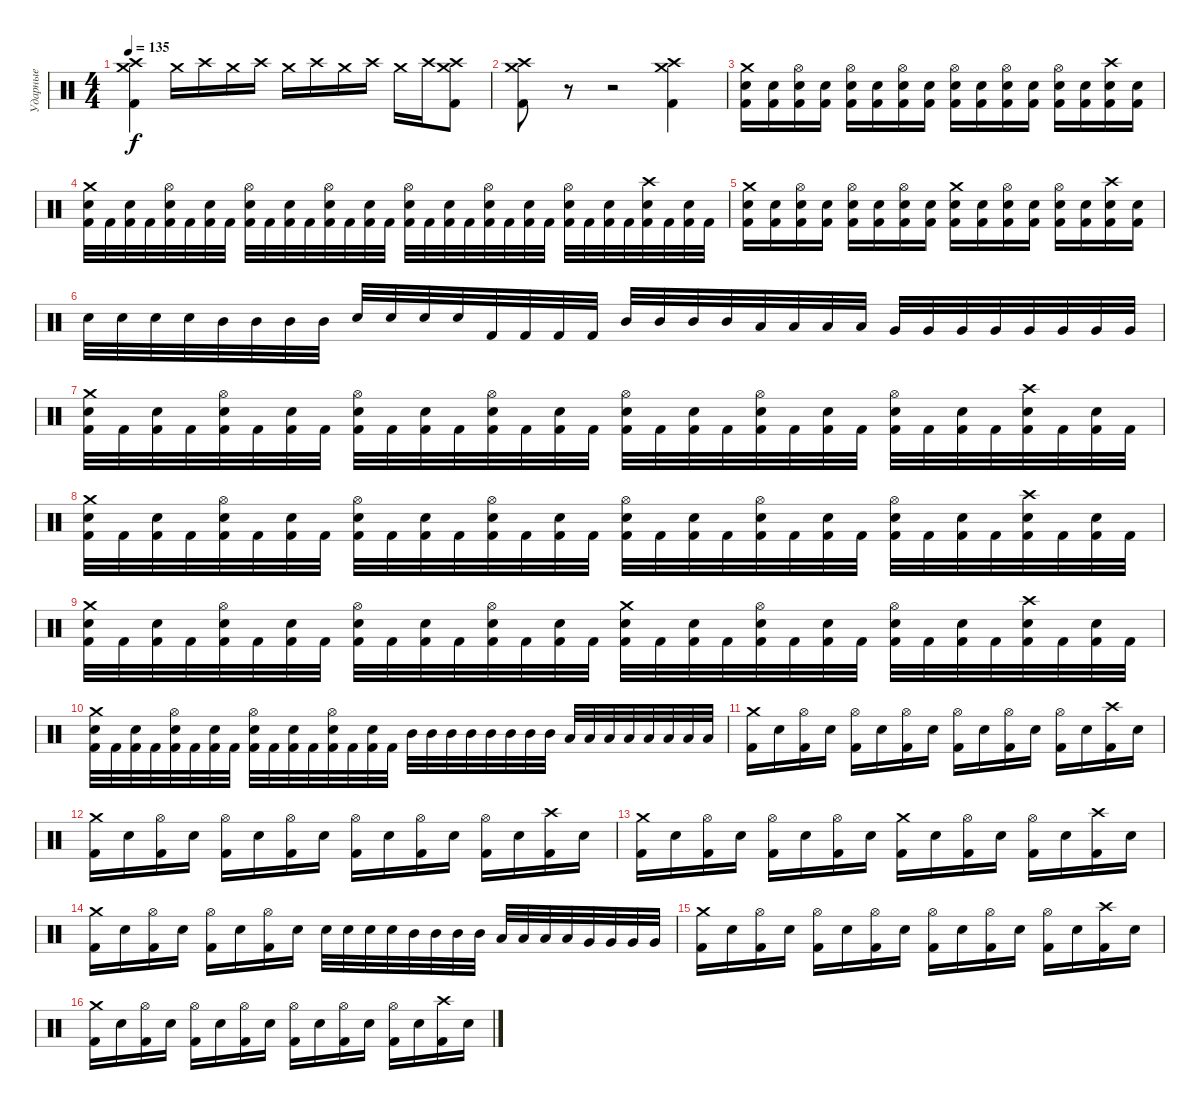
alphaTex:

\track ("Ударные" "Ударные") {instrument percussion}
\staff {score}
\articulation defaults
\ts (4 4)
\tempo 135
\clef neutral
\ks c
("Crash medium (hit)" "Crash high (hit)" "Kick (hit) 2").4{dy f} "Crash medium (hit)".16 "Crash high (hit)".16 "Crash medium (hit)".16 "Crash high (hit)".16 "Crash medium (hit)".16 "Crash high (hit)".16 "Crash medium (hit)".16 "Crash high (hit)".16 "Crash medium (hit)".16 "Crash high (hit)".16 ("Crash medium (hit)" "Crash high (hit)" "Kick (hit) 2").8 |
("Crash medium (hit)" "Crash high (hit)" "Kick (hit) 2").8 r.8 r.2 ("Crash medium (hit)" "Crash high (hit)" "Kick (hit) 2").4 |
("Crash medium (hit)" "Electric Snare (hit)" "Kick (hit) 2").16 ("Electric Snare (hit)" "Kick (hit) 2").16 ("Hi-Hat (open)" "Electric Snare (hit)" "Kick (hit) 2").16 ("Electric Snare (hit)" "Kick (hit) 2").16 ("Hi-Hat (open)" "Electric Snare (hit)" "Kick (hit) 2").16 ("Electric Snare (hit)" "Kick (hit) 2").16 ("Hi-Hat (open)" "Electric Snare (hit)" "Kick (hit) 2").16 ("Electric Snare (hit)" "Kick (hit) 2").16 ("Hi-Hat (open)" "Electric Snare (hit)" "Kick (hit) 2").16 ("Electric Snare (hit)" "Kick (hit) 2").16 ("Hi-Hat (open)" "Electric Snare (hit)" "Kick (hit) 2").16 ("Electric Snare (hit)" "Kick (hit) 2").16 ("Hi-Hat (open)" "Electric Snare (hit)" "Kick (hit) 2").16 ("Electric Snare (hit)" "Kick (hit) 2").16 ("Crash high (hit)" "Electric Snare (hit)" "Kick (hit) 2").16 ("Electric Snare (hit)" "Kick (hit) 2").16 |
("Crash medium (hit)" "Electric Snare (hit)" "Kick (hit) 2").32 "Kick (hit) 2".32 ("Electric Snare (hit)" "Kick (hit) 2").32 "Kick (hit) 2".32 ("Hi-Hat (open)" "Electric Snare (hit)" "Kick (hit) 2").32 "Kick (hit) 2".32 ("Electric Snare (hit)" "Kick (hit) 2").32 "Kick (hit) 2".32 ("Hi-Hat (open)" "Electric Snare (hit)" "Kick (hit) 2").32 "Kick (hit) 2".32 ("Electric Snare (hit)" "Kick (hit) 2").32 "Kick (hit) 2".32 ("Hi-Hat (open)" "Electric Snare (hit)" "Kick (hit) 2").32 "Kick (hit) 2".32 ("Electric Snare (hit)" "Kick (hit) 2").32 "Kick (hit) 2".32 ("Hi-Hat (open)" "Electric Snare (hit)" "Kick (hit) 2").32 "Kick (hit) 2".32 ("Electric Snare (hit)" "Kick (hit) 2").32 "Kick (hit) 2".32 ("Hi-Hat (open)" "Electric Snare (hit)" "Kick (hit) 2").32 "Kick (hit) 2".32 ("Electric Snare (hit)" "Kick (hit) 2").32 "Kick (hit) 2".32 ("Hi-Hat (open)" "Electric Snare (hit)" "Kick (hit) 2").32 "Kick (hit) 2".32 ("Electric Snare (hit)" "Kick (hit) 2").32 "Kick (hit) 2".32 ("Crash high (hit)" "Electric Snare (hit)" "Kick (hit) 2").32 "Kick (hit) 2".32 ("Electric Snare (hit)" "Kick (hit) 2").32 "Kick (hit) 2".32 |
("Crash medium (hit)" "Electric Snare (hit)" "Kick (hit) 2").16 ("Electric Snare (hit)" "Kick (hit) 2").16 ("Hi-Hat (open)" "Electric Snare (hit)" "Kick (hit) 2").16 ("Electric Snare (hit)" "Kick (hit) 2").16 ("Hi-Hat (open)" "Electric Snare (hit)" "Kick (hit) 2").16 ("Electric Snare (hit)" "Kick (hit) 2").16 ("Hi-Hat (open)" "Electric Snare (hit)" "Kick (hit) 2").16 ("Electric Snare (hit)" "Kick (hit) 2").16 ("Crash medium (hit)" "Electric Snare (hit)" "Kick (hit) 2").16 ("Electric Snare (hit)" "Kick (hit) 2").16 ("Hi-Hat (open)" "Electric Snare (hit)" "Kick (hit) 2").16 ("Electric Snare (hit)" "Kick (hit) 2").16 ("Hi-Hat (open)" "Electric Snare (hit)" "Kick (hit) 2").16 ("Electric Snare (hit)" "Kick (hit) 2").16 ("Crash high (hit)" "Electric Snare (hit)" "Kick (hit) 2").16 ("Electric Snare (hit)" "Kick (hit) 2").16 |
"Electric Snare (hit)".32 "Electric Snare (hit)".32 "Electric Snare (hit)".32 "Electric Snare (hit)".32 "Mid Tom (hit)".32 "Mid Tom (hit)".32 "Mid Tom (hit)".32 "Mid Tom (hit)".32 "Electric Snare (hit)".32 "Electric Snare (hit)".32 "Electric Snare (hit)".32 "Electric Snare (hit)".32 "Kick (hit) 2".32 "Kick (hit) 2".32 "Kick (hit) 2".32 "Kick (hit) 2".32 "Mid Tom (hit)".32 "Mid Tom (hit)".32 "Mid Tom (hit)".32 "Mid Tom (hit)".32 "Low Tom (hit)".32 "Low Tom (hit)".32 "Low Tom (hit)".32 "Low Tom (hit)".32 "Very Low Tom (hit)".32 "Very Low Tom (hit)".32 "Very Low Tom (hit)".32 "Very Low Tom (hit)".32 "Very Low Tom (hit)".32 "Very Low Tom (hit)".32 "Very Low Tom (hit)".32 "Very Low Tom (hit)".32 |
("Crash medium (hit)" "Electric Snare (hit)" "Kick (hit) 2").32 "Kick (hit) 2".32 ("Electric Snare (hit)" "Kick (hit) 2").32 "Kick (hit) 2".32 ("Hi-Hat (open)" "Electric Snare (hit)" "Kick (hit) 2").32 "Kick (hit) 2".32 ("Electric Snare (hit)" "Kick (hit) 2").32 "Kick (hit) 2".32 ("Hi-Hat (open)" "Electric Snare (hit)" "Kick (hit) 2").32 "Kick (hit) 2".32 ("Electric Snare (hit)" "Kick (hit) 2").32 "Kick (hit) 2".32 ("Hi-Hat (open)" "Electric Snare (hit)" "Kick (hit) 2").32 "Kick (hit) 2".32 ("Electric Snare (hit)" "Kick (hit) 2").32 "Kick (hit) 2".32 ("Hi-Hat (open)" "Electric Snare (hit)" "Kick (hit) 2").32 "Kick (hit) 2".32 ("Electric Snare (hit)" "Kick (hit) 2").32 "Kick (hit) 2".32 ("Hi-Hat (open)" "Electric Snare (hit)" "Kick (hit) 2").32 "Kick (hit) 2".32 ("Electric Snare (hit)" "Kick (hit) 2").32 "Kick (hit) 2".32 ("Hi-Hat (open)" "Electric Snare (hit)" "Kick (hit) 2").32 "Kick (hit) 2".32 ("Electric Snare (hit)" "Kick (hit) 2").32 "Kick (hit) 2".32 ("Crash high (hit)" "Electric Snare (hit)" "Kick (hit) 2").32 "Kick (hit) 2".32 ("Electric Snare (hit)" "Kick (hit) 2").32 "Kick (hit) 2".32 |
("Crash medium (hit)" "Electric Snare (hit)" "Kick (hit) 2").32 "Kick (hit) 2".32 ("Electric Snare (hit)" "Kick (hit) 2").32 "Kick (hit) 2".32 ("Hi-Hat (open)" "Electric Snare (hit)" "Kick (hit) 2").32 "Kick (hit) 2".32 ("Electric Snare (hit)" "Kick (hit) 2").32 "Kick (hit) 2".32 ("Hi-Hat (open)" "Electric Snare (hit)" "Kick (hit) 2").32 "Kick (hit) 2".32 ("Electric Snare (hit)" "Kick (hit) 2").32 "Kick (hit) 2".32 ("Hi-Hat (open)" "Electric Snare (hit)" "Kick (hit) 2").32 "Kick (hit) 2".32 ("Electric Snare (hit)" "Kick (hit) 2").32 "Kick (hit) 2".32 ("Hi-Hat (open)" "Electric Snare (hit)" "Kick (hit) 2").32 "Kick (hit) 2".32 ("Electric Snare (hit)" "Kick (hit) 2").32 "Kick (hit) 2".32 ("Hi-Hat (open)" "Electric Snare (hit)" "Kick (hit) 2").32 "Kick (hit) 2".32 ("Electric Snare (hit)" "Kick (hit) 2").32 "Kick (hit) 2".32 ("Hi-Hat (open)" "Electric Snare (hit)" "Kick (hit) 2").32 "Kick (hit) 2".32 ("Electric Snare (hit)" "Kick (hit) 2").32 "Kick (hit) 2".32 ("Crash high (hit)" "Electric Snare (hit)" "Kick (hit) 2").32 "Kick (hit) 2".32 ("Electric Snare (hit)" "Kick (hit) 2").32 "Kick (hit) 2".32 |
("Crash medium (hit)" "Electric Snare (hit)" "Kick (hit) 2").32 "Kick (hit) 2".32 ("Electric Snare (hit)" "Kick (hit) 2").32 "Kick (hit) 2".32 ("Hi-Hat (open)" "Electric Snare (hit)" "Kick (hit) 2").32 "Kick (hit) 2".32 ("Electric Snare (hit)" "Kick (hit) 2").32 "Kick (hit) 2".32 ("Hi-Hat (open)" "Electric Snare (hit)" "Kick (hit) 2").32 "Kick (hit) 2".32 ("Electric Snare (hit)" "Kick (hit) 2").32 "Kick (hit) 2".32 ("Hi-Hat (open)" "Electric Snare (hit)" "Kick (hit) 2").32 "Kick (hit) 2".32 ("Electric Snare (hit)" "Kick (hit) 2").32 "Kick (hit) 2".32 ("Crash medium (hit)" "Electric Snare (hit)" "Kick (hit) 2").32 "Kick (hit) 2".32 ("Electric Snare (hit)" "Kick (hit) 2").32 "Kick (hit) 2".32 ("Hi-Hat (open)" "Electric Snare (hit)" "Kick (hit) 2").32 "Kick (hit) 2".32 ("Electric Snare (hit)" "Kick (hit) 2").32 "Kick (hit) 2".32 ("Hi-Hat (open)" "Electric Snare (hit)" "Kick (hit) 2").32 "Kick (hit) 2".32 ("Electric Snare (hit)" "Kick (hit) 2").32 "Kick (hit) 2".32 ("Crash high (hit)" "Electric Snare (hit)" "Kick (hit) 2").32 "Kick (hit) 2".32 ("Electric Snare (hit)" "Kick (hit) 2").32 "Kick (hit) 2".32 |
("Crash medium (hit)" "Electric Snare (hit)" "Kick (hit) 2").32 "Kick (hit) 2".32 ("Electric Snare (hit)" "Kick (hit) 2").32 "Kick (hit) 2".32 ("Hi-Hat (open)" "Electric Snare (hit)" "Kick (hit) 2").32 "Kick (hit) 2".32 ("Electric Snare (hit)" "Kick (hit) 2").32 "Kick (hit) 2".32 ("Hi-Hat (open)" "Electric Snare (hit)" "Kick (hit) 2").32 "Kick (hit) 2".32 ("Electric Snare (hit)" "Kick (hit) 2").32 "Kick (hit) 2".32 ("Hi-Hat (open)" "Electric Snare (hit)" "Kick (hit) 2").32 "Kick (hit) 2".32 ("Electric Snare (hit)" "Kick (hit) 2").32 "Kick (hit) 2".32 "Mid Tom (hit)".32 "Mid Tom (hit)".32 "Mid Tom (hit)".32 "Mid Tom (hit)".32 "Mid Tom (hit)".32 "Mid Tom (hit)".32 "Mid Tom (hit)".32 "Mid Tom (hit)".32 "Low Tom (hit)".32 "Low Tom (hit)".32 "Low Tom (hit)".32 "Low Tom (hit)".32 "Low Tom (hit)".32 "Low Tom (hit)".32 "Low Tom (hit)".32 "Low Tom (hit)".32 |
("Crash medium (hit)" "Kick (hit) 2").16 "Electric Snare (hit)".16 ("Hi-Hat (open)" "Kick (hit) 2").16 "Electric Snare (hit)".16 ("Hi-Hat (open)" "Kick (hit) 2").16 "Electric Snare (hit)".16 ("Hi-Hat (open)" "Kick (hit) 2").16 "Electric Snare (hit)".16 ("Hi-Hat (open)" "Kick (hit) 2").16 "Electric Snare (hit)".16 ("Hi-Hat (open)" "Kick (hit) 2").16 "Electric Snare (hit)".16 ("Hi-Hat (open)" "Kick (hit) 2").16 "Electric Snare (hit)".16 ("Crash high (hit)" "Kick (hit) 2").16 "Electric Snare (hit)".16 |
("Crash medium (hit)" "Kick (hit) 2").16 "Electric Snare (hit)".16 ("Hi-Hat (open)" "Kick (hit) 2").16 "Electric Snare (hit)".16 ("Hi-Hat (open)" "Kick (hit) 2").16 "Electric Snare (hit)".16 ("Hi-Hat (open)" "Kick (hit) 2").16 "Electric Snare (hit)".16 ("Hi-Hat (open)" "Kick (hit) 2").16 "Electric Snare (hit)".16 ("Hi-Hat (open)" "Kick (hit) 2").16 "Electric Snare (hit)".16 ("Hi-Hat (open)" "Kick (hit) 2").16 "Electric Snare (hit)".16 ("Crash high (hit)" "Kick (hit) 2").16 "Electric Snare (hit)".16 |
("Crash medium (hit)" "Kick (hit) 2").16 "Electric Snare (hit)".16 ("Hi-Hat (open)" "Kick (hit) 2").16 "Electric Snare (hit)".16 ("Hi-Hat (open)" "Kick (hit) 2").16 "Electric Snare (hit)".16 ("Hi-Hat (open)" "Kick (hit) 2").16 "Electric Snare (hit)".16 ("Crash medium (hit)" "Kick (hit) 2").16 "Electric Snare (hit)".16 ("Hi-Hat (open)" "Kick (hit) 2").16 "Electric Snare (hit)".16 ("Hi-Hat (open)" "Kick (hit) 2").16 "Electric Snare (hit)".16 ("Crash high (hit)" "Kick (hit) 2").16 "Electric Snare (hit)".16 |
("Crash medium (hit)" "Kick (hit) 2").16 "Electric Snare (hit)".16 ("Hi-Hat (open)" "Kick (hit) 2").16 "Electric Snare (hit)".16 ("Hi-Hat (open)" "Kick (hit) 2").16 "Electric Snare (hit)".16 ("Hi-Hat (open)" "Kick (hit) 2").16 "Electric Snare (hit)".16 "Electric Snare (hit)".32 "Electric Snare (hit)".32 "Electric Snare (hit)".32 "Electric Snare (hit)".32 "Mid Tom (hit)".32 "Mid Tom (hit)".32 "Mid Tom (hit)".32 "Mid Tom (hit)".32 "Low Tom (hit)".32 "Low Tom (hit)".32 "Low Tom (hit)".32 "Low Tom (hit)".32 "Very Low Tom (hit)".32 "Very Low Tom (hit)".32 "Very Low Tom (hit)".32 "Very Low Tom (hit)".32 |
("Crash medium (hit)" "Kick (hit) 2").16 "Electric Snare (hit)".16 ("Hi-Hat (open)" "Kick (hit) 2").16 "Electric Snare (hit)".16 ("Hi-Hat (open)" "Kick (hit) 2").16 "Electric Snare (hit)".16 ("Hi-Hat (open)" "Kick (hit) 2").16 "Electric Snare (hit)".16 ("Hi-Hat (open)" "Kick (hit) 2").16 "Electric Snare (hit)".16 ("Hi-Hat (open)" "Kick (hit) 2").16 "Electric Snare (hit)".16 ("Hi-Hat (open)" "Kick (hit) 2").16 "Electric Snare (hit)".16 ("Crash high (hit)" "Kick (hit) 2").16 "Electric Snare (hit)".16 |
("Crash medium (hit)" "Kick (hit) 2").16 "Electric Snare (hit)".16 ("Hi-Hat (open)" "Kick (hit) 2").16 "Electric Snare (hit)".16 ("Hi-Hat (open)" "Kick (hit) 2").16 "Electric Snare (hit)".16 ("Hi-Hat (open)" "Kick (hit) 2").16 "Electric Snare (hit)".16 ("Hi-Hat (open)" "Kick (hit) 2").16 "Electric Snare (hit)".16 ("Hi-Hat (open)" "Kick (hit) 2").16 "Electric Snare (hit)".16 ("Hi-Hat (open)" "Kick (hit) 2").16 "Electric Snare (hit)".16 ("Crash high (hit)" "Kick (hit) 2").16 "Electric Snare (hit)".16
